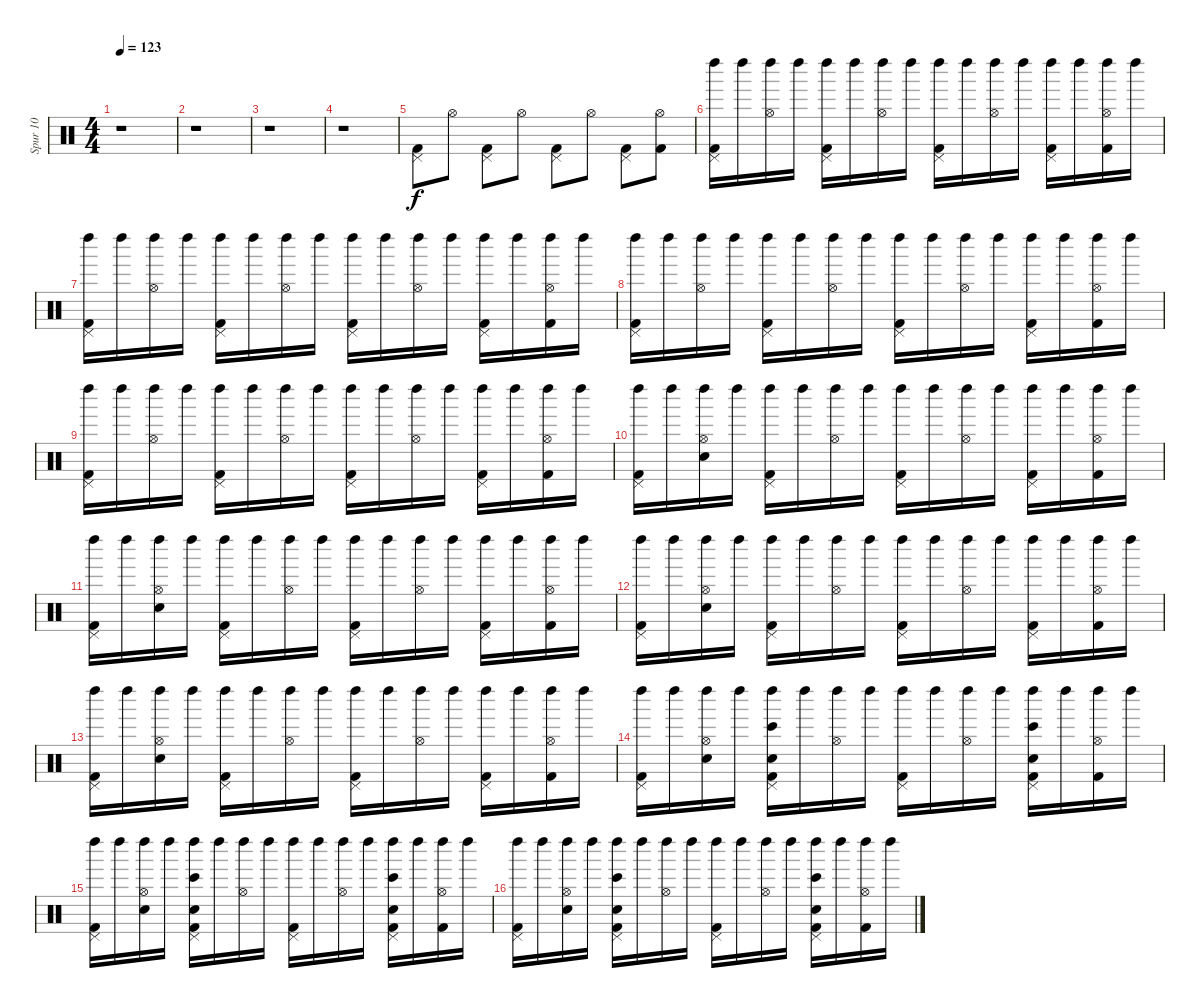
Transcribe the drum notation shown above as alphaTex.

\track ("Spur 10" "Spur 10") {instrument percussion}
\staff {score}
\articulation defaults
\ts (4 4)
\tempo 123
\clef neutral
\ks c
r.1{dy f} |
r.1 |
r.1 |
r.1 |
("Kick (hit) 2" "Pedal Hi-Hat (hit)").8 "Hi-Hat (open)".8 ("Kick (hit) 2" "Pedal Hi-Hat (hit)").8 "Hi-Hat (open)".8 ("Kick (hit) 2" "Pedal Hi-Hat (hit)").8 "Hi-Hat (open)".8 ("Kick (hit) 2" "Pedal Hi-Hat (hit)").8 ("Kick (hit) 2" "Hi-Hat (open)").8 |
("Kick (hit) 2" "Left Maraca (hit)" "Pedal Hi-Hat (hit)").16 "Left Maraca (hit)".16 ("Left Maraca (hit)" "Hi-Hat (open)").16 "Left Maraca (hit)".16 ("Kick (hit) 2" "Left Maraca (hit)" "Pedal Hi-Hat (hit)").16 "Left Maraca (hit)".16 ("Left Maraca (hit)" "Hi-Hat (open)").16 "Left Maraca (hit)".16 ("Kick (hit) 2" "Left Maraca (hit)" "Pedal Hi-Hat (hit)").16 "Left Maraca (hit)".16 ("Left Maraca (hit)" "Hi-Hat (open)").16 "Left Maraca (hit)".16 ("Kick (hit) 2" "Left Maraca (hit)" "Pedal Hi-Hat (hit)").16 "Left Maraca (hit)".16 ("Left Maraca (hit)" "Kick (hit) 2" "Hi-Hat (open)").16 "Left Maraca (hit)".16 |
("Kick (hit) 2" "Left Maraca (hit)" "Pedal Hi-Hat (hit)").16 "Left Maraca (hit)".16 ("Left Maraca (hit)" "Hi-Hat (open)").16 "Left Maraca (hit)".16 ("Kick (hit) 2" "Left Maraca (hit)" "Pedal Hi-Hat (hit)").16 "Left Maraca (hit)".16 ("Left Maraca (hit)" "Hi-Hat (open)").16 "Left Maraca (hit)".16 ("Kick (hit) 2" "Left Maraca (hit)" "Pedal Hi-Hat (hit)").16 "Left Maraca (hit)".16 ("Left Maraca (hit)" "Hi-Hat (open)").16 "Left Maraca (hit)".16 ("Left Maraca (hit)" "Kick (hit) 2" "Pedal Hi-Hat (hit)").16 "Left Maraca (hit)".16 ("Left Maraca (hit)" "Kick (hit) 2" "Hi-Hat (open)").16 "Left Maraca (hit)".16 |
("Kick (hit) 2" "Left Maraca (hit)" "Pedal Hi-Hat (hit)").16 "Left Maraca (hit)".16 ("Left Maraca (hit)" "Hi-Hat (open)").16 "Left Maraca (hit)".16 ("Kick (hit) 2" "Left Maraca (hit)" "Pedal Hi-Hat (hit)").16 "Left Maraca (hit)".16 ("Left Maraca (hit)" "Hi-Hat (open)").16 "Left Maraca (hit)".16 ("Left Maraca (hit)" "Kick (hit) 2" "Pedal Hi-Hat (hit)").16 "Left Maraca (hit)".16 ("Left Maraca (hit)" "Hi-Hat (open)").16 "Left Maraca (hit)".16 ("Kick (hit) 2" "Left Maraca (hit)" "Pedal Hi-Hat (hit)").16 "Left Maraca (hit)".16 ("Left Maraca (hit)" "Kick (hit) 2" "Hi-Hat (open)").16 "Left Maraca (hit)".16 |
("Kick (hit) 2" "Left Maraca (hit)" "Pedal Hi-Hat (hit)").16 "Left Maraca (hit)".16 ("Left Maraca (hit)" "Hi-Hat (open)").16 "Left Maraca (hit)".16 ("Left Maraca (hit)" "Kick (hit) 2" "Pedal Hi-Hat (hit)").16 "Left Maraca (hit)".16 ("Left Maraca (hit)" "Hi-Hat (open)").16 "Left Maraca (hit)".16 ("Kick (hit) 2" "Left Maraca (hit)" "Pedal Hi-Hat (hit)").16 "Left Maraca (hit)".16 ("Left Maraca (hit)" "Hi-Hat (open)").16 "Left Maraca (hit)".16 ("Left Maraca (hit)" "Kick (hit) 2" "Pedal Hi-Hat (hit)").16 "Left Maraca (hit)".16 ("Left Maraca (hit)" "Kick (hit) 2" "Hi-Hat (open)").16 "Left Maraca (hit)".16 |
("Kick (hit) 2" "Left Maraca (hit)" "Pedal Hi-Hat (hit)").16 "Left Maraca (hit)".16 ("Electric Snare (hit)" "Left Maraca (hit)" "Hi-Hat (open)").16 "Left Maraca (hit)".16 ("Kick (hit) 2" "Left Maraca (hit)" "Pedal Hi-Hat (hit)").16 "Left Maraca (hit)".16 ("Left Maraca (hit)" "Hi-Hat (open)").16 "Left Maraca (hit)".16 ("Kick (hit) 2" "Left Maraca (hit)" "Pedal Hi-Hat (hit)").16 "Left Maraca (hit)".16 ("Left Maraca (hit)" "Hi-Hat (open)").16 "Left Maraca (hit)".16 ("Left Maraca (hit)" "Kick (hit) 2" "Pedal Hi-Hat (hit)").16 "Left Maraca (hit)".16 ("Left Maraca (hit)" "Kick (hit) 2" "Hi-Hat (open)").16 "Left Maraca (hit)".16 |
("Kick (hit) 2" "Left Maraca (hit)" "Pedal Hi-Hat (hit)").16 "Left Maraca (hit)".16 ("Electric Snare (hit)" "Left Maraca (hit)" "Hi-Hat (open)").16 "Left Maraca (hit)".16 ("Left Maraca (hit)" "Kick (hit) 2" "Pedal Hi-Hat (hit)").16 "Left Maraca (hit)".16 ("Left Maraca (hit)" "Hi-Hat (open)").16 "Left Maraca (hit)".16 ("Kick (hit) 2" "Left Maraca (hit)" "Pedal Hi-Hat (hit)").16 "Left Maraca (hit)".16 ("Left Maraca (hit)" "Hi-Hat (open)").16 "Left Maraca (hit)".16 ("Left Maraca (hit)" "Kick (hit) 2" "Pedal Hi-Hat (hit)").16 "Left Maraca (hit)".16 ("Left Maraca (hit)" "Kick (hit) 2" "Hi-Hat (open)").16 "Left Maraca (hit)".16 |
("Kick (hit) 2" "Left Maraca (hit)" "Pedal Hi-Hat (hit)").16 "Left Maraca (hit)".16 ("Electric Snare (hit)" "Left Maraca (hit)" "Hi-Hat (open)").16 "Left Maraca (hit)".16 ("Kick (hit) 2" "Left Maraca (hit)" "Pedal Hi-Hat (hit)").16 "Left Maraca (hit)".16 ("Left Maraca (hit)" "Hi-Hat (open)").16 "Left Maraca (hit)".16 ("Kick (hit) 2" "Left Maraca (hit)" "Pedal Hi-Hat (hit)").16 "Left Maraca (hit)".16 ("Left Maraca (hit)" "Hi-Hat (open)").16 "Left Maraca (hit)".16 ("Left Maraca (hit)" "Kick (hit) 2" "Pedal Hi-Hat (hit)").16 "Left Maraca (hit)".16 ("Left Maraca (hit)" "Kick (hit) 2" "Hi-Hat (open)").16 "Left Maraca (hit)".16 |
("Kick (hit) 2" "Left Maraca (hit)" "Pedal Hi-Hat (hit)").16 "Left Maraca (hit)".16 ("Electric Snare (hit)" "Left Maraca (hit)" "Hi-Hat (open)").16 "Left Maraca (hit)".16 ("Left Maraca (hit)" "Kick (hit) 2" "Pedal Hi-Hat (hit)").16 "Left Maraca (hit)".16 ("Left Maraca (hit)" "Hi-Hat (open)").16 "Left Maraca (hit)".16 ("Kick (hit) 2" "Left Maraca (hit)" "Pedal Hi-Hat (hit)").16 "Left Maraca (hit)".16 ("Left Maraca (hit)" "Hi-Hat (open)").16 "Left Maraca (hit)".16 ("Left Maraca (hit)" "Kick (hit) 2" "Pedal Hi-Hat (hit)").16 "Left Maraca (hit)".16 ("Left Maraca (hit)" "Kick (hit) 2" "Hi-Hat (open)").16 "Left Maraca (hit)".16 |
("Kick (hit) 2" "Left Maraca (hit)" "Pedal Hi-Hat (hit)").16 "Left Maraca (hit)".16 ("Electric Snare (hit)" "Left Maraca (hit)" "Hi-Hat (open)").16 "Left Maraca (hit)".16 ("Bongo High (hit)" "Snare (hit) 2" "Left Maraca (hit)" "Kick (hit) 2" "Pedal Hi-Hat (hit)").16 "Left Maraca (hit)".16 ("Left Maraca (hit)" "Hi-Hat (open)").16 "Left Maraca (hit)".16 ("Kick (hit) 2" "Left Maraca (hit)" "Pedal Hi-Hat (hit)").16 "Left Maraca (hit)".16 ("Left Maraca (hit)" "Hi-Hat (open)").16 "Left Maraca (hit)".16 ("Snare (hit) 2" "Bongo High (hit)" "Left Maraca (hit)" "Kick (hit) 2" "Pedal Hi-Hat (hit)").16 "Left Maraca (hit)".16 ("Left Maraca (hit)" "Kick (hit) 2" "Hi-Hat (open)").16 "Left Maraca (hit)".16 |
("Kick (hit) 2" "Left Maraca (hit)" "Pedal Hi-Hat (hit)").16 "Left Maraca (hit)".16 ("Electric Snare (hit)" "Left Maraca (hit)" "Hi-Hat (open)").16 "Left Maraca (hit)".16 ("Bongo High (hit)" "Snare (hit) 2" "Kick (hit) 2" "Left Maraca (hit)" "Pedal Hi-Hat (hit)").16 "Left Maraca (hit)".16 ("Left Maraca (hit)" "Hi-Hat (open)").16 "Left Maraca (hit)".16 ("Kick (hit) 2" "Left Maraca (hit)" "Pedal Hi-Hat (hit)").16 "Left Maraca (hit)".16 ("Left Maraca (hit)" "Hi-Hat (open)").16 "Left Maraca (hit)".16 ("Left Maraca (hit)" "Snare (hit) 2" "Kick (hit) 2" "Bongo High (hit)" "Pedal Hi-Hat (hit)").16 "Left Maraca (hit)".16 ("Left Maraca (hit)" "Kick (hit) 2" "Hi-Hat (open)").16 "Left Maraca (hit)".16 |
("Kick (hit) 2" "Left Maraca (hit)" "Pedal Hi-Hat (hit)").16 "Left Maraca (hit)".16 ("Electric Snare (hit)" "Left Maraca (hit)" "Hi-Hat (open)").16 "Left Maraca (hit)".16 ("Kick (hit) 2" "Snare (hit) 2" "Left Maraca (hit)" "Bongo High (hit)" "Pedal Hi-Hat (hit)").16 "Left Maraca (hit)".16 ("Left Maraca (hit)" "Hi-Hat (open)").16 "Left Maraca (hit)".16 ("Kick (hit) 2" "Left Maraca (hit)" "Pedal Hi-Hat (hit)").16 "Left Maraca (hit)".16 ("Left Maraca (hit)" "Hi-Hat (open)").16 "Left Maraca (hit)".16 ("Left Maraca (hit)" "Kick (hit) 2" "Bongo High (hit)" "Snare (hit) 2" "Pedal Hi-Hat (hit)").16 "Left Maraca (hit)".16 ("Left Maraca (hit)" "Kick (hit) 2" "Hi-Hat (open)").16 "Left Maraca (hit)".16
